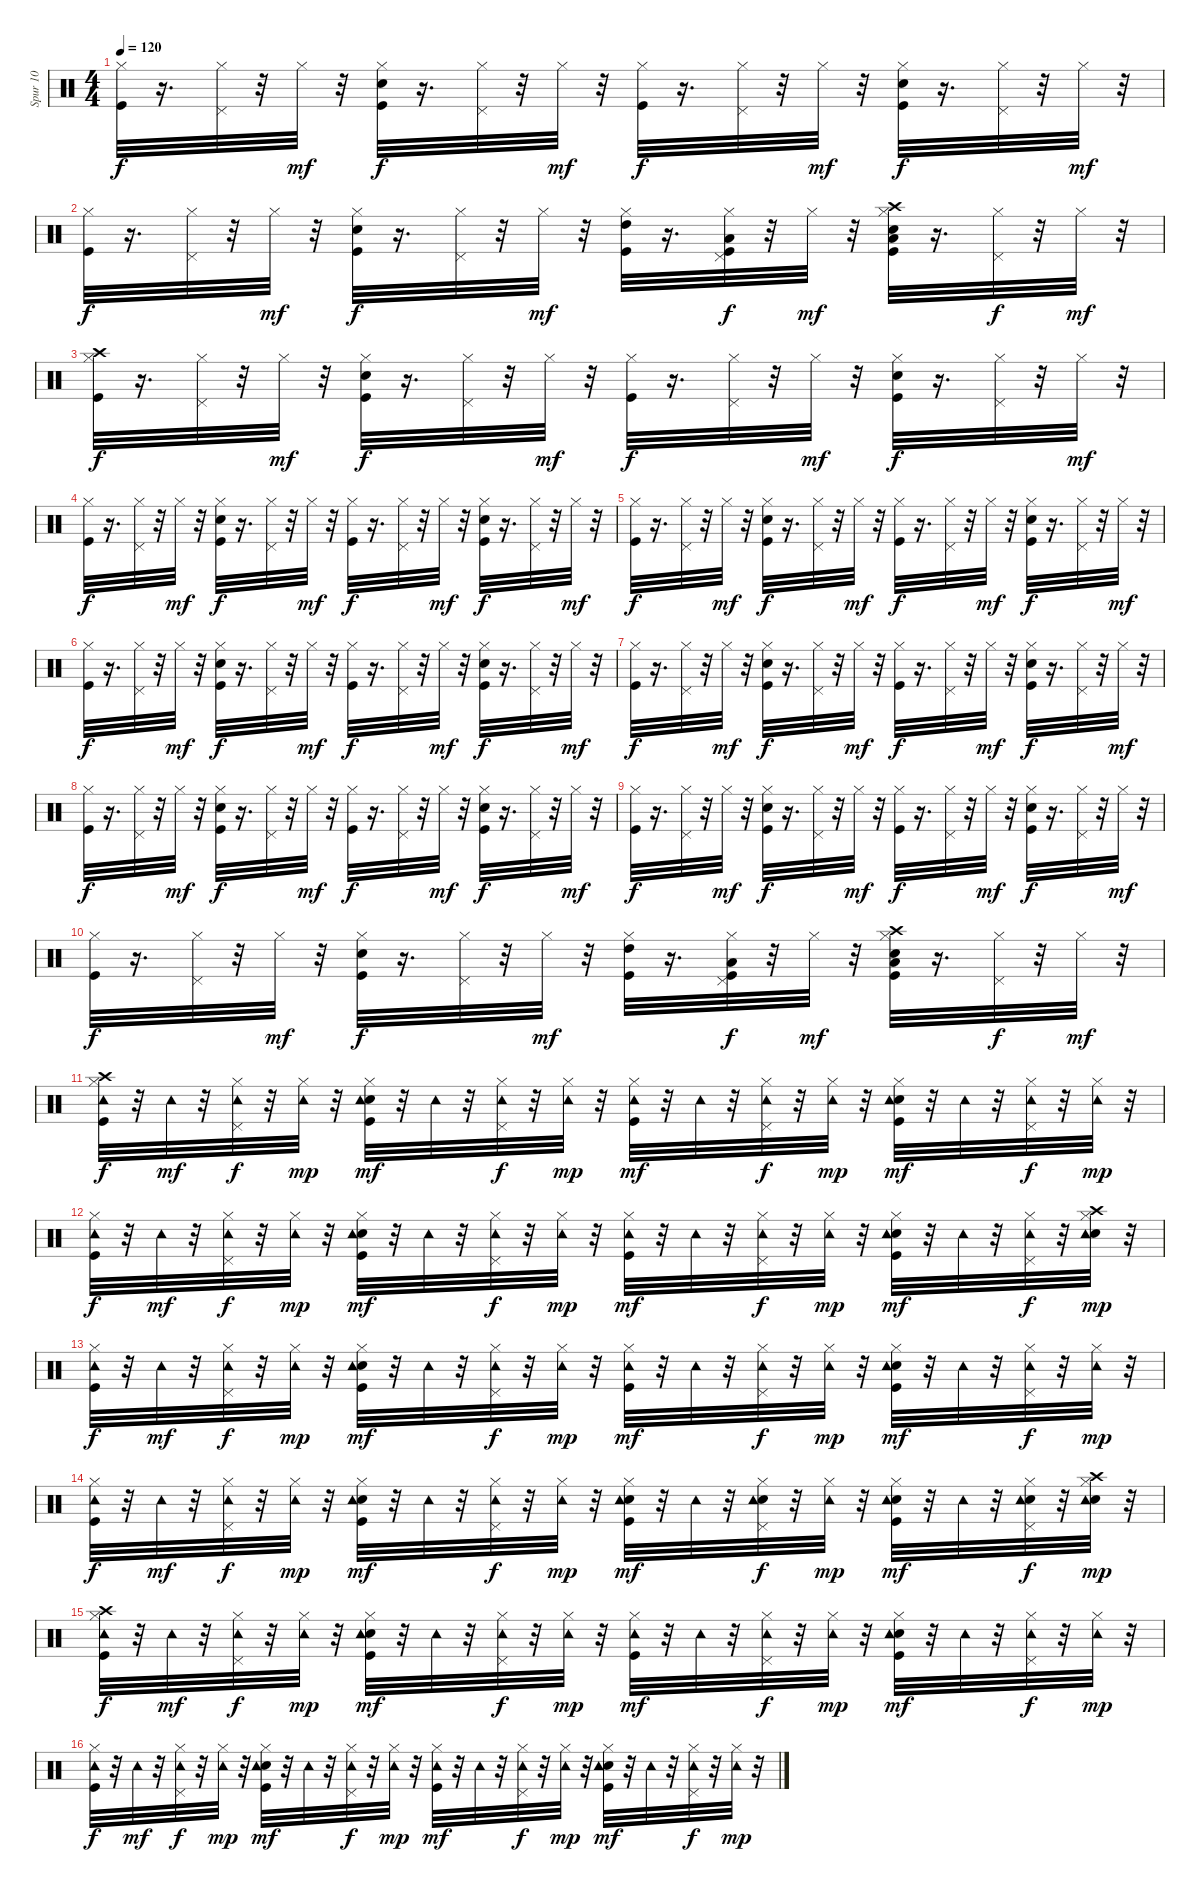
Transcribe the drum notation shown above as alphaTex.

\track ("Spur 10" "Spur 10") {instrument percussion}
\staff {score}
\articulation defaults
\ts (4 4)
\tempo 120
\clef neutral
\ks c
("Kick (hit)" "Hi-Hat (closed)").32{dy f} r.16{d} ("Hi-Hat (closed)" "Pedal Hi-Hat (hit)").32 r.32 "Hi-Hat (closed)".32{dy mf} r.32 ("Kick (hit)" "Snare (hit) 2" "Hi-Hat (closed)").32{dy f} r.16{d} ("Hi-Hat (closed)" "Pedal Hi-Hat (hit)").32 r.32 "Hi-Hat (closed)".32{dy mf} r.32 ("Kick (hit)" "Hi-Hat (closed)").32{dy f} r.16{d} ("Hi-Hat (closed)" "Pedal Hi-Hat (hit)").32 r.32 "Hi-Hat (closed)".32{dy mf} r.32 ("Kick (hit)" "Snare (hit) 2" "Hi-Hat (closed)").32{dy f} r.16{d} ("Hi-Hat (closed)" "Pedal Hi-Hat (hit)").32 r.32 "Hi-Hat (closed)".32{dy mf} r.32 |
("Kick (hit)" "Hi-Hat (closed)").32{dy f} r.16{d} ("Hi-Hat (closed)" "Pedal Hi-Hat (hit)").32 r.32 "Hi-Hat (closed)".32{dy mf} r.32 ("Kick (hit)" "Snare (hit) 2" "Hi-Hat (closed)").32{dy f} r.16{d} ("Hi-Hat (closed)" "Pedal Hi-Hat (hit)").32 r.32 "Hi-Hat (closed)".32{dy mf} r.32 ("Kick (hit)" "Hi-Hat (closed)" "High Tom (hit)").32 r.16{d} ("Kick (hit)" "Hi-Hat (closed)" "Pedal Hi-Hat (hit)" "Low Tom (hit)").32{dy f} r.32 "Hi-Hat (closed)".32{dy mf} r.32 ("Kick (hit)" "Electric Snare (hit)" "Hi-Hat (closed)" "Crash high (hit)" "Low Floor Tom (hit)").32 r.16{d} ("Hi-Hat (closed)" "Pedal Hi-Hat (hit)").32{dy f} r.32 "Hi-Hat (closed)".32{dy mf} r.32 |
("Kick (hit)" "Hi-Hat (closed)" "Crash high (hit)").32{dy f} r.16{d} ("Hi-Hat (closed)" "Pedal Hi-Hat (hit)").32 r.32 "Hi-Hat (closed)".32{dy mf} r.32 ("Kick (hit)" "Snare (hit) 2" "Hi-Hat (closed)").32{dy f} r.16{d} ("Hi-Hat (closed)" "Pedal Hi-Hat (hit)").32 r.32 "Hi-Hat (closed)".32{dy mf} r.32 ("Kick (hit)" "Hi-Hat (closed)").32{dy f} r.16{d} ("Hi-Hat (closed)" "Pedal Hi-Hat (hit)").32 r.32 "Hi-Hat (closed)".32{dy mf} r.32 ("Kick (hit)" "Snare (hit) 2" "Hi-Hat (closed)").32{dy f} r.16{d} ("Hi-Hat (closed)" "Pedal Hi-Hat (hit)").32 r.32 "Hi-Hat (closed)".32{dy mf} r.32 |
("Kick (hit)" "Hi-Hat (closed)").32{dy f} r.16{d} ("Hi-Hat (closed)" "Pedal Hi-Hat (hit)").32 r.32 "Hi-Hat (closed)".32{dy mf} r.32 ("Kick (hit)" "Snare (hit) 2" "Hi-Hat (closed)").32{dy f} r.16{d} ("Hi-Hat (closed)" "Pedal Hi-Hat (hit)").32 r.32 "Hi-Hat (closed)".32{dy mf} r.32 ("Kick (hit)" "Hi-Hat (closed)").32{dy f} r.16{d} ("Hi-Hat (closed)" "Pedal Hi-Hat (hit)").32 r.32 "Hi-Hat (closed)".32{dy mf} r.32 ("Kick (hit)" "Snare (hit) 2" "Hi-Hat (closed)").32{dy f} r.16{d} ("Hi-Hat (closed)" "Pedal Hi-Hat (hit)").32 r.32 "Hi-Hat (closed)".32{dy mf} r.32 |
("Kick (hit)" "Hi-Hat (closed)").32{dy f} r.16{d} ("Hi-Hat (closed)" "Pedal Hi-Hat (hit)").32 r.32 "Hi-Hat (closed)".32{dy mf} r.32 ("Kick (hit)" "Snare (hit) 2" "Hi-Hat (closed)").32{dy f} r.16{d} ("Hi-Hat (closed)" "Pedal Hi-Hat (hit)").32 r.32 "Hi-Hat (closed)".32{dy mf} r.32 ("Kick (hit)" "Hi-Hat (closed)").32{dy f} r.16{d} ("Hi-Hat (closed)" "Pedal Hi-Hat (hit)").32 r.32 "Hi-Hat (closed)".32{dy mf} r.32 ("Kick (hit)" "Snare (hit) 2" "Hi-Hat (closed)").32{dy f} r.16{d} ("Hi-Hat (closed)" "Pedal Hi-Hat (hit)").32 r.32 "Hi-Hat (closed)".32{dy mf} r.32 |
("Kick (hit)" "Hi-Hat (closed)").32{dy f} r.16{d} ("Hi-Hat (closed)" "Pedal Hi-Hat (hit)").32 r.32 "Hi-Hat (closed)".32{dy mf} r.32 ("Kick (hit)" "Snare (hit) 2" "Hi-Hat (closed)").32{dy f} r.16{d} ("Hi-Hat (closed)" "Pedal Hi-Hat (hit)").32 r.32 "Hi-Hat (closed)".32{dy mf} r.32 ("Kick (hit)" "Hi-Hat (closed)").32{dy f} r.16{d} ("Hi-Hat (closed)" "Pedal Hi-Hat (hit)").32 r.32 "Hi-Hat (closed)".32{dy mf} r.32 ("Kick (hit)" "Snare (hit) 2" "Hi-Hat (closed)").32{dy f} r.16{d} ("Hi-Hat (closed)" "Pedal Hi-Hat (hit)").32 r.32 "Hi-Hat (closed)".32{dy mf} r.32 |
("Kick (hit)" "Hi-Hat (closed)").32{dy f} r.16{d} ("Hi-Hat (closed)" "Pedal Hi-Hat (hit)").32 r.32 "Hi-Hat (closed)".32{dy mf} r.32 ("Kick (hit)" "Snare (hit) 2" "Hi-Hat (closed)").32{dy f} r.16{d} ("Hi-Hat (closed)" "Pedal Hi-Hat (hit)").32 r.32 "Hi-Hat (closed)".32{dy mf} r.32 ("Kick (hit)" "Hi-Hat (closed)").32{dy f} r.16{d} ("Hi-Hat (closed)" "Pedal Hi-Hat (hit)").32 r.32 "Hi-Hat (closed)".32{dy mf} r.32 ("Kick (hit)" "Snare (hit) 2" "Hi-Hat (closed)").32{dy f} r.16{d} ("Hi-Hat (closed)" "Pedal Hi-Hat (hit)").32 r.32 "Hi-Hat (closed)".32{dy mf} r.32 |
("Kick (hit)" "Hi-Hat (closed)").32{dy f} r.16{d} ("Hi-Hat (closed)" "Pedal Hi-Hat (hit)").32 r.32 "Hi-Hat (closed)".32{dy mf} r.32 ("Kick (hit)" "Snare (hit) 2" "Hi-Hat (closed)").32{dy f} r.16{d} ("Hi-Hat (closed)" "Pedal Hi-Hat (hit)").32 r.32 "Hi-Hat (closed)".32{dy mf} r.32 ("Kick (hit)" "Hi-Hat (closed)").32{dy f} r.16{d} ("Hi-Hat (closed)" "Pedal Hi-Hat (hit)").32 r.32 "Hi-Hat (closed)".32{dy mf} r.32 ("Kick (hit)" "Snare (hit) 2" "Hi-Hat (closed)").32{dy f} r.16{d} ("Hi-Hat (closed)" "Pedal Hi-Hat (hit)").32 r.32 "Hi-Hat (closed)".32{dy mf} r.32 |
("Kick (hit)" "Hi-Hat (closed)").32{dy f} r.16{d} ("Hi-Hat (closed)" "Pedal Hi-Hat (hit)").32 r.32 "Hi-Hat (closed)".32{dy mf} r.32 ("Kick (hit)" "Snare (hit) 2" "Hi-Hat (closed)").32{dy f} r.16{d} ("Hi-Hat (closed)" "Pedal Hi-Hat (hit)").32 r.32 "Hi-Hat (closed)".32{dy mf} r.32 ("Kick (hit)" "Hi-Hat (closed)").32{dy f} r.16{d} ("Hi-Hat (closed)" "Pedal Hi-Hat (hit)").32 r.32 "Hi-Hat (closed)".32{dy mf} r.32 ("Kick (hit)" "Snare (hit) 2" "Hi-Hat (closed)").32{dy f} r.16{d} ("Hi-Hat (closed)" "Pedal Hi-Hat (hit)").32 r.32 "Hi-Hat (closed)".32{dy mf} r.32 |
("Kick (hit)" "Hi-Hat (closed)").32{dy f} r.16{d} ("Hi-Hat (closed)" "Pedal Hi-Hat (hit)").32 r.32 "Hi-Hat (closed)".32{dy mf} r.32 ("Kick (hit)" "Snare (hit) 2" "Hi-Hat (closed)").32{dy f} r.16{d} ("Hi-Hat (closed)" "Pedal Hi-Hat (hit)").32 r.32 "Hi-Hat (closed)".32{dy mf} r.32 ("Kick (hit)" "Hi-Hat (closed)" "High Tom (hit)").32 r.16{d} ("Kick (hit)" "Hi-Hat (closed)" "Pedal Hi-Hat (hit)" "Low Tom (hit)").32{dy f} r.32 "Hi-Hat (closed)".32{dy mf} r.32 ("Kick (hit)" "Electric Snare (hit)" "Hi-Hat (closed)" "Crash high (hit)" "Low Floor Tom (hit)").32 r.16{d} ("Hi-Hat (closed)" "Pedal Hi-Hat (hit)").32{dy f} r.32 "Hi-Hat (closed)".32{dy mf} r.32 |
("Kick (hit)" "Hi-Hat (closed)" "Crash high (hit)" "Tambourine (hit)").32{dy f} r.32 "Tambourine (hit)".32{dy mf} r.32 ("Hi-Hat (closed)" "Pedal Hi-Hat (hit)" "Tambourine (hit)").32{dy f} r.32 ("Hi-Hat (closed)" "Tambourine (hit)").32{dy mp} r.32 ("Kick (hit)" "Snare (hit) 2" "Hi-Hat (closed)" "Tambourine (hit)").32{dy mf} r.32 "Tambourine (hit)".32 r.32 ("Hi-Hat (closed)" "Pedal Hi-Hat (hit)" "Tambourine (hit)").32{dy f} r.32 ("Hi-Hat (closed)" "Tambourine (hit)").32{dy mp} r.32 ("Kick (hit)" "Hi-Hat (closed)" "Tambourine (hit)").32{dy mf} r.32 "Tambourine (hit)".32 r.32 ("Hi-Hat (closed)" "Pedal Hi-Hat (hit)" "Tambourine (hit)").32{dy f} r.32 ("Hi-Hat (closed)" "Tambourine (hit)").32{dy mp} r.32 ("Kick (hit)" "Snare (hit) 2" "Hi-Hat (closed)" "Tambourine (hit)").32{dy mf} r.32 "Tambourine (hit)".32 r.32 ("Hi-Hat (closed)" "Pedal Hi-Hat (hit)" "Tambourine (hit)").32{dy f} r.32 ("Hi-Hat (closed)" "Tambourine (hit)").32{dy mp} r.32 |
("Kick (hit)" "Hi-Hat (closed)" "Tambourine (hit)").32{dy f} r.32 "Tambourine (hit)".32{dy mf} r.32 ("Hi-Hat (closed)" "Pedal Hi-Hat (hit)" "Tambourine (hit)").32{dy f} r.32 ("Hi-Hat (closed)" "Tambourine (hit)").32{dy mp} r.32 ("Kick (hit)" "Snare (hit) 2" "Hi-Hat (closed)" "Tambourine (hit)").32{dy mf} r.32 "Tambourine (hit)".32 r.32 ("Hi-Hat (closed)" "Pedal Hi-Hat (hit)" "Tambourine (hit)").32{dy f} r.32 ("Hi-Hat (closed)" "Tambourine (hit)").32{dy mp} r.32 ("Kick (hit)" "Hi-Hat (closed)" "Tambourine (hit)").32{dy mf} r.32 "Tambourine (hit)".32 r.32 ("Hi-Hat (closed)" "Pedal Hi-Hat (hit)" "Tambourine (hit)").32{dy f} r.32 ("Hi-Hat (closed)" "Tambourine (hit)").32{dy mp} r.32 ("Kick (hit)" "Snare (hit) 2" "Hi-Hat (closed)" "Tambourine (hit)").32{dy mf} r.32 "Tambourine (hit)".32 r.32 ("Hi-Hat (closed)" "Pedal Hi-Hat (hit)" "Tambourine (hit)").32{dy f} r.32 ("Snare (hit) 2" "Hi-Hat (closed)" "Crash high (hit)" "Tambourine (hit)").32{dy mp} r.32 |
("Kick (hit)" "Hi-Hat (closed)" "Tambourine (hit)").32{dy f} r.32 "Tambourine (hit)".32{dy mf} r.32 ("Hi-Hat (closed)" "Pedal Hi-Hat (hit)" "Tambourine (hit)").32{dy f} r.32 ("Hi-Hat (closed)" "Tambourine (hit)").32{dy mp} r.32 ("Kick (hit)" "Snare (hit) 2" "Hi-Hat (closed)" "Tambourine (hit)").32{dy mf} r.32 "Tambourine (hit)".32 r.32 ("Hi-Hat (closed)" "Pedal Hi-Hat (hit)" "Tambourine (hit)").32{dy f} r.32 ("Hi-Hat (closed)" "Tambourine (hit)").32{dy mp} r.32 ("Kick (hit)" "Hi-Hat (closed)" "Tambourine (hit)").32{dy mf} r.32 "Tambourine (hit)".32 r.32 ("Hi-Hat (closed)" "Pedal Hi-Hat (hit)" "Tambourine (hit)").32{dy f} r.32 ("Hi-Hat (closed)" "Tambourine (hit)").32{dy mp} r.32 ("Kick (hit)" "Snare (hit) 2" "Hi-Hat (closed)" "Tambourine (hit)").32{dy mf} r.32 "Tambourine (hit)".32 r.32 ("Hi-Hat (closed)" "Pedal Hi-Hat (hit)" "Tambourine (hit)").32{dy f} r.32 ("Hi-Hat (closed)" "Tambourine (hit)").32{dy mp} r.32 |
("Kick (hit)" "Hi-Hat (closed)" "Tambourine (hit)").32{dy f} r.32 "Tambourine (hit)".32{dy mf} r.32 ("Hi-Hat (closed)" "Pedal Hi-Hat (hit)" "Tambourine (hit)").32{dy f} r.32 ("Hi-Hat (closed)" "Tambourine (hit)").32{dy mp} r.32 ("Kick (hit)" "Snare (hit) 2" "Hi-Hat (closed)" "Tambourine (hit)").32{dy mf} r.32 "Tambourine (hit)".32 r.32 ("Hi-Hat (closed)" "Pedal Hi-Hat (hit)" "Tambourine (hit)").32{dy f} r.32 ("Hi-Hat (closed)" "Tambourine (hit)").32{dy mp} r.32 ("Kick (hit)" "Snare (hit) 2" "Hi-Hat (closed)" "Tambourine (hit)").32{dy mf} r.32 "Tambourine (hit)".32 r.32 ("Snare (hit) 2" "Hi-Hat (closed)" "Pedal Hi-Hat (hit)" "Tambourine (hit)").32{dy f} r.32 ("Hi-Hat (closed)" "Tambourine (hit)").32{dy mp} r.32 ("Kick (hit)" "Snare (hit) 2" "Hi-Hat (closed)" "Tambourine (hit)").32{dy mf} r.32 "Tambourine (hit)".32 r.32 ("Snare (hit) 2" "Hi-Hat (closed)" "Pedal Hi-Hat (hit)" "Tambourine (hit)").32{dy f} r.32 ("Snare (hit) 2" "Hi-Hat (closed)" "Crash high (hit)" "Tambourine (hit)").32{dy mp} r.32 |
("Kick (hit)" "Hi-Hat (closed)" "Crash high (hit)" "Tambourine (hit)").32{dy f} r.32 "Tambourine (hit)".32{dy mf} r.32 ("Hi-Hat (closed)" "Pedal Hi-Hat (hit)" "Tambourine (hit)").32{dy f} r.32 ("Hi-Hat (closed)" "Tambourine (hit)").32{dy mp} r.32 ("Kick (hit)" "Snare (hit) 2" "Hi-Hat (closed)" "Tambourine (hit)").32{dy mf} r.32 "Tambourine (hit)".32 r.32 ("Hi-Hat (closed)" "Pedal Hi-Hat (hit)" "Tambourine (hit)").32{dy f} r.32 ("Hi-Hat (closed)" "Tambourine (hit)").32{dy mp} r.32 ("Kick (hit)" "Hi-Hat (closed)" "Tambourine (hit)").32{dy mf} r.32 "Tambourine (hit)".32 r.32 ("Hi-Hat (closed)" "Pedal Hi-Hat (hit)" "Tambourine (hit)").32{dy f} r.32 ("Hi-Hat (closed)" "Tambourine (hit)").32{dy mp} r.32 ("Kick (hit)" "Snare (hit) 2" "Hi-Hat (closed)" "Tambourine (hit)").32{dy mf} r.32 "Tambourine (hit)".32 r.32 ("Hi-Hat (closed)" "Pedal Hi-Hat (hit)" "Tambourine (hit)").32{dy f} r.32 ("Hi-Hat (closed)" "Tambourine (hit)").32{dy mp} r.32 |
("Kick (hit)" "Hi-Hat (closed)" "Tambourine (hit)").32{dy f} r.32 "Tambourine (hit)".32{dy mf} r.32 ("Hi-Hat (closed)" "Pedal Hi-Hat (hit)" "Tambourine (hit)").32{dy f} r.32 ("Hi-Hat (closed)" "Tambourine (hit)").32{dy mp} r.32 ("Kick (hit)" "Snare (hit) 2" "Hi-Hat (closed)" "Tambourine (hit)").32{dy mf} r.32 "Tambourine (hit)".32 r.32 ("Hi-Hat (closed)" "Pedal Hi-Hat (hit)" "Tambourine (hit)").32{dy f} r.32 ("Hi-Hat (closed)" "Tambourine (hit)").32{dy mp} r.32 ("Kick (hit)" "Hi-Hat (closed)" "Tambourine (hit)").32{dy mf} r.32 "Tambourine (hit)".32 r.32 ("Hi-Hat (closed)" "Pedal Hi-Hat (hit)" "Tambourine (hit)").32{dy f} r.32 ("Hi-Hat (closed)" "Tambourine (hit)").32{dy mp} r.32 ("Kick (hit)" "Snare (hit) 2" "Hi-Hat (closed)" "Tambourine (hit)").32{dy mf} r.32 "Tambourine (hit)".32 r.32 ("Hi-Hat (closed)" "Pedal Hi-Hat (hit)" "Tambourine (hit)").32{dy f} r.32 ("Hi-Hat (closed)" "Tambourine (hit)").32{dy mp} r.32
